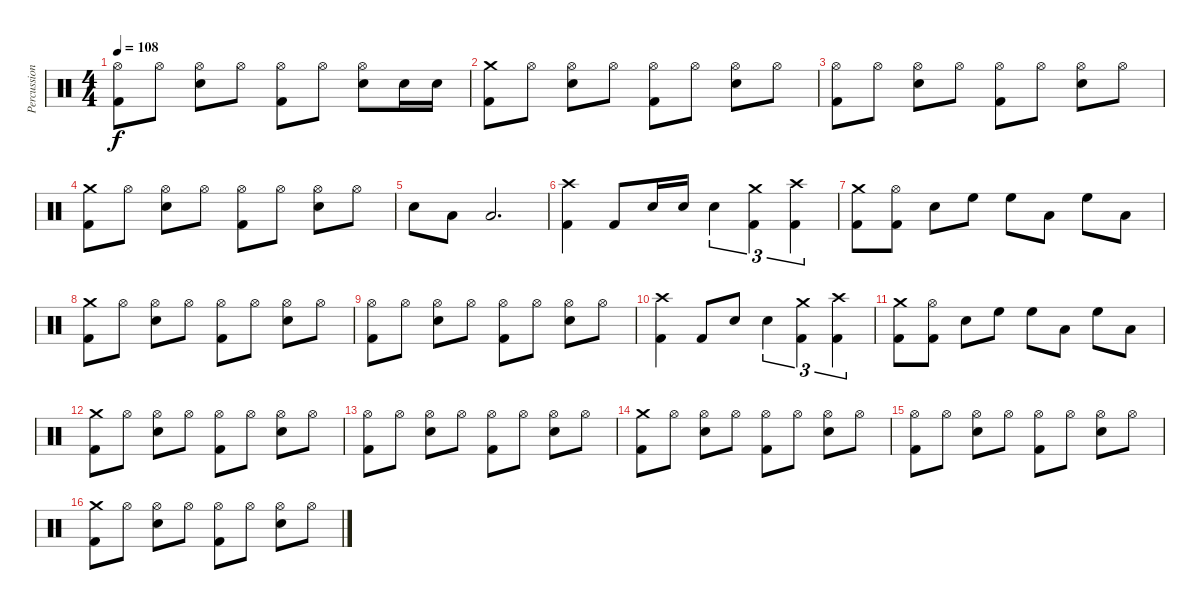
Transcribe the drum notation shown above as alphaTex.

\track ("Percussion" "Percussion") {instrument percussion}
\staff {score}
\articulation defaults
\ts (4 4)
\tempo 108
\clef neutral
\ks c
("Hi-Hat (open)" "Kick (hit) 2").8{dy f} "Hi-Hat (open)".8 ("Hi-Hat (open)" "Snare (hit) 2").8 "Hi-Hat (open)".8 ("Hi-Hat (open)" "Kick (hit) 2").8 "Hi-Hat (open)".8 ("Hi-Hat (open)" "Snare (hit) 2").8 "Snare (hit) 2".16 "Snare (hit) 2".16 |
("Crash medium (hit)" "Kick (hit) 2").8 "Hi-Hat (open)".8 ("Hi-Hat (open)" "Snare (hit) 2").8 "Hi-Hat (open)".8 ("Hi-Hat (open)" "Kick (hit) 2").8 "Hi-Hat (open)".8 ("Hi-Hat (open)" "Snare (hit) 2").8 "Hi-Hat (open)".8 |
("Hi-Hat (open)" "Kick (hit) 2").8 "Hi-Hat (open)".8 ("Hi-Hat (open)" "Snare (hit) 2").8 "Hi-Hat (open)".8 ("Hi-Hat (open)" "Kick (hit) 2").8 "Hi-Hat (open)".8 ("Hi-Hat (open)" "Snare (hit) 2").8 "Hi-Hat (open)".8 |
("Crash medium (hit)" "Kick (hit) 2").8 "Hi-Hat (open)".8 ("Hi-Hat (open)" "Snare (hit) 2").8 "Hi-Hat (open)".8 ("Hi-Hat (open)" "Kick (hit) 2").8 "Hi-Hat (open)".8 ("Hi-Hat (open)" "Snare (hit) 2").8 "Hi-Hat (open)".8 |
"Snare (hit) 2".8 "Low Tom (hit)".8 "Low Tom (hit)".2{d} |
("Crash high (hit)" "Kick (hit) 2").4 "Kick (hit) 2".8 "Snare (hit) 2".16 "Snare (hit) 2".16 "Snare (hit) 2".4{tu (3 2)} ("Kick (hit) 2" "Crash medium (hit)").4{tu (3 2)} ("Kick (hit) 2" "Crash high (hit)").4{tu (3 2)} |
("Kick (hit) 2" "Crash medium (hit)").8 ("Hi-Hat (open)" "Kick (hit) 2").8 "Snare (hit) 2".8 "High Floor Tom (hit)".8 "High Floor Tom (hit)".8 "Low Tom (hit)".8 "High Floor Tom (hit)".8 "Low Tom (hit)".8 |
("Crash medium (hit)" "Kick (hit) 2").8 "Hi-Hat (open)".8 ("Hi-Hat (open)" "Snare (hit) 2").8 "Hi-Hat (open)".8 ("Hi-Hat (open)" "Kick (hit) 2").8 "Hi-Hat (open)".8 ("Hi-Hat (open)" "Snare (hit) 2").8 "Hi-Hat (open)".8 |
("Hi-Hat (open)" "Kick (hit) 2").8 "Hi-Hat (open)".8 ("Hi-Hat (open)" "Snare (hit) 2").8 "Hi-Hat (open)".8 ("Hi-Hat (open)" "Kick (hit) 2").8 "Hi-Hat (open)".8 ("Hi-Hat (open)" "Snare (hit) 2").8 "Hi-Hat (open)".8 |
("Crash high (hit)" "Kick (hit) 2").4 "Kick (hit) 2".8 "Snare (hit) 2".8 "Snare (hit) 2".4{tu (3 2)} ("Kick (hit) 2" "Crash medium (hit)").4{tu (3 2)} ("Kick (hit) 2" "Crash high (hit)").4{tu (3 2)} |
("Kick (hit) 2" "Crash medium (hit)").8 ("Hi-Hat (open)" "Kick (hit) 2").8 "Snare (hit) 2".8 "High Floor Tom (hit)".8 "High Floor Tom (hit)".8 "Low Tom (hit)".8 "High Floor Tom (hit)".8 "Low Tom (hit)".8 |
("Crash medium (hit)" "Kick (hit) 2").8 "Hi-Hat (open)".8 ("Hi-Hat (open)" "Snare (hit) 2").8 "Hi-Hat (open)".8 ("Hi-Hat (open)" "Kick (hit) 2").8 "Hi-Hat (open)".8 ("Hi-Hat (open)" "Snare (hit) 2").8 "Hi-Hat (open)".8 |
("Hi-Hat (open)" "Kick (hit) 2").8 "Hi-Hat (open)".8 ("Hi-Hat (open)" "Snare (hit) 2").8 "Hi-Hat (open)".8 ("Hi-Hat (open)" "Kick (hit) 2").8 "Hi-Hat (open)".8 ("Hi-Hat (open)" "Snare (hit) 2").8 "Hi-Hat (open)".8 |
("Crash medium (hit)" "Kick (hit) 2").8 "Hi-Hat (open)".8 ("Hi-Hat (open)" "Snare (hit) 2").8 "Hi-Hat (open)".8 ("Hi-Hat (open)" "Kick (hit) 2").8 "Hi-Hat (open)".8 ("Hi-Hat (open)" "Snare (hit) 2").8 "Hi-Hat (open)".8 |
("Hi-Hat (open)" "Kick (hit) 2").8 "Hi-Hat (open)".8 ("Hi-Hat (open)" "Snare (hit) 2").8 "Hi-Hat (open)".8 ("Hi-Hat (open)" "Kick (hit) 2").8 "Hi-Hat (open)".8 ("Hi-Hat (open)" "Snare (hit) 2").8 "Hi-Hat (open)".8 |
("Crash medium (hit)" "Kick (hit) 2").8 "Hi-Hat (open)".8 ("Hi-Hat (open)" "Snare (hit) 2").8 "Hi-Hat (open)".8 ("Hi-Hat (open)" "Kick (hit) 2").8 "Hi-Hat (open)".8 ("Hi-Hat (open)" "Snare (hit) 2").8 "Hi-Hat (open)".8
